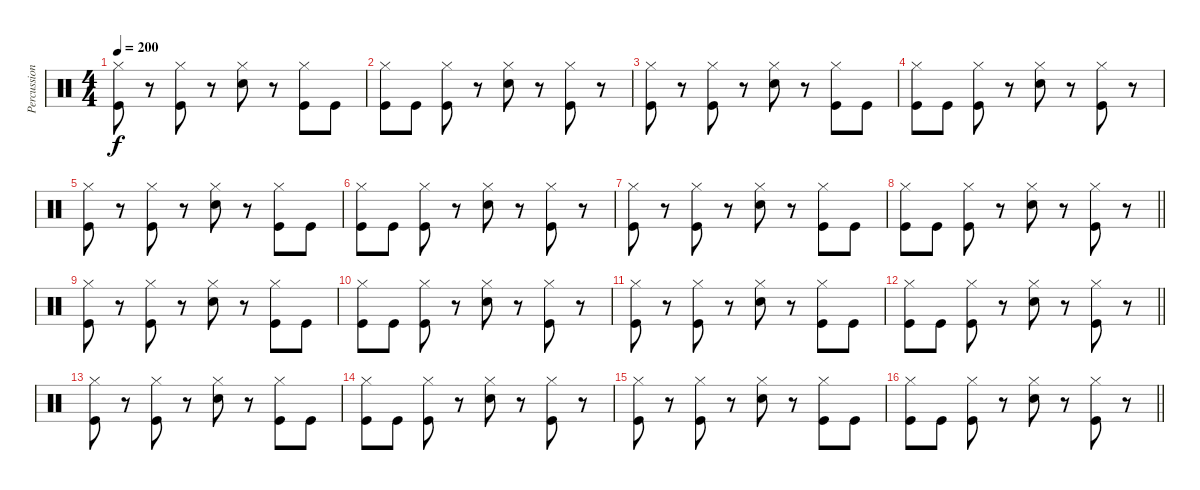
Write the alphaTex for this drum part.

\track ("Percussion" "Percussion") {instrument percussion}
\staff {score}
\articulation defaults
\ts (4 4)
\tempo 200
\clef neutral
\ks c
("Hi-Hat (closed)" "Kick (hit)").8{dy f} r.8 ("Hi-Hat (closed)" "Kick (hit)").8 r.8 ("Hi-Hat (closed)" "Snare (hit) 2").8 r.8 ("Hi-Hat (closed)" "Kick (hit)").8 "Kick (hit)".8 |
("Hi-Hat (closed)" "Kick (hit)").8 "Kick (hit)".8 ("Hi-Hat (closed)" "Kick (hit)").8 r.8 ("Hi-Hat (closed)" "Snare (hit) 2").8 r.8 ("Hi-Hat (closed)" "Kick (hit)").8 r.8 |
("Hi-Hat (closed)" "Kick (hit)").8 r.8 ("Hi-Hat (closed)" "Kick (hit)").8 r.8 ("Hi-Hat (closed)" "Snare (hit) 2").8 r.8 ("Hi-Hat (closed)" "Kick (hit)").8 "Kick (hit)".8 |
("Hi-Hat (closed)" "Kick (hit)").8 "Kick (hit)".8 ("Hi-Hat (closed)" "Kick (hit)").8 r.8 ("Hi-Hat (closed)" "Snare (hit) 2").8 r.8 ("Hi-Hat (closed)" "Kick (hit)").8 r.8 |
("Hi-Hat (closed)" "Kick (hit)").8 r.8 ("Hi-Hat (closed)" "Kick (hit)").8 r.8 ("Hi-Hat (closed)" "Snare (hit) 2").8 r.8 ("Hi-Hat (closed)" "Kick (hit)").8 "Kick (hit)".8 |
("Hi-Hat (closed)" "Kick (hit)").8 "Kick (hit)".8 ("Hi-Hat (closed)" "Kick (hit)").8 r.8 ("Hi-Hat (closed)" "Snare (hit) 2").8 r.8 ("Hi-Hat (closed)" "Kick (hit)").8 r.8 |
("Hi-Hat (closed)" "Kick (hit)").8 r.8 ("Hi-Hat (closed)" "Kick (hit)").8 r.8 ("Hi-Hat (closed)" "Snare (hit) 2").8 r.8 ("Hi-Hat (closed)" "Kick (hit)").8 "Kick (hit)".8 |
\barLineRight lightlight
("Hi-Hat (closed)" "Kick (hit)").8 "Kick (hit)".8 ("Hi-Hat (closed)" "Kick (hit)").8 r.8 ("Hi-Hat (closed)" "Snare (hit) 2").8 r.8 ("Hi-Hat (closed)" "Kick (hit)").8 r.8 |
("Hi-Hat (closed)" "Kick (hit)").8 r.8 ("Hi-Hat (closed)" "Kick (hit)").8 r.8 ("Hi-Hat (closed)" "Snare (hit) 2").8 r.8 ("Hi-Hat (closed)" "Kick (hit)").8 "Kick (hit)".8 |
("Hi-Hat (closed)" "Kick (hit)").8 "Kick (hit)".8 ("Hi-Hat (closed)" "Kick (hit)").8 r.8 ("Hi-Hat (closed)" "Snare (hit) 2").8 r.8 ("Hi-Hat (closed)" "Kick (hit)").8 r.8 |
("Hi-Hat (closed)" "Kick (hit)").8 r.8 ("Hi-Hat (closed)" "Kick (hit)").8 r.8 ("Hi-Hat (closed)" "Snare (hit) 2").8 r.8 ("Hi-Hat (closed)" "Kick (hit)").8 "Kick (hit)".8 |
\barLineRight lightlight
("Hi-Hat (closed)" "Kick (hit)").8 "Kick (hit)".8 ("Hi-Hat (closed)" "Kick (hit)").8 r.8 ("Hi-Hat (closed)" "Snare (hit) 2").8 r.8 ("Hi-Hat (closed)" "Kick (hit)").8 r.8 |
("Hi-Hat (closed)" "Kick (hit)").8 r.8 ("Hi-Hat (closed)" "Kick (hit)").8 r.8 ("Hi-Hat (closed)" "Snare (hit) 2").8 r.8 ("Hi-Hat (closed)" "Kick (hit)").8 "Kick (hit)".8 |
("Hi-Hat (closed)" "Kick (hit)").8 "Kick (hit)".8 ("Hi-Hat (closed)" "Kick (hit)").8 r.8 ("Hi-Hat (closed)" "Snare (hit) 2").8 r.8 ("Hi-Hat (closed)" "Kick (hit)").8 r.8 |
("Hi-Hat (closed)" "Kick (hit)").8 r.8 ("Hi-Hat (closed)" "Kick (hit)").8 r.8 ("Hi-Hat (closed)" "Snare (hit) 2").8 r.8 ("Hi-Hat (closed)" "Kick (hit)").8 "Kick (hit)".8 |
\barLineRight lightlight
("Hi-Hat (closed)" "Kick (hit)").8 "Kick (hit)".8 ("Hi-Hat (closed)" "Kick (hit)").8 r.8 ("Hi-Hat (closed)" "Snare (hit) 2").8 r.8 ("Hi-Hat (closed)" "Kick (hit)").8 r.8
